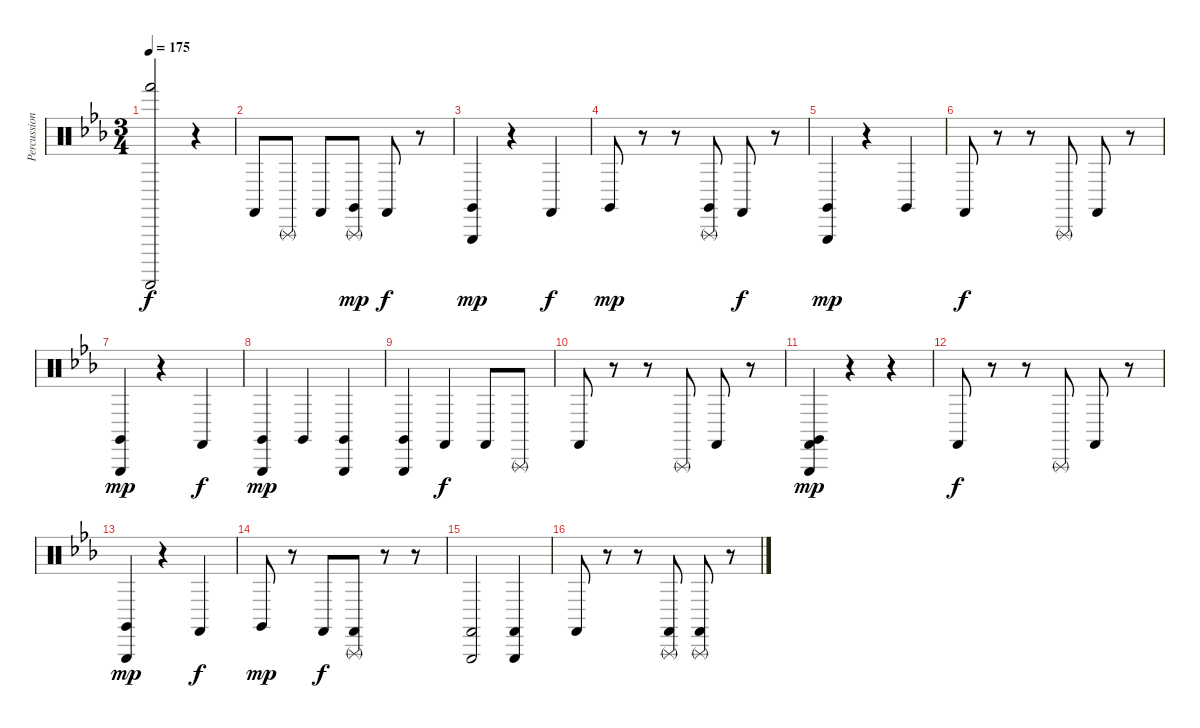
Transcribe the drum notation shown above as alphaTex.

\track ("Percussion" "Percussion") {instrument percussion}
\staff {score}
\articulation defaults
\ts (3 4)
\tempo 175
\clef neutral
\ks eb
("Guiro (scrap-return)" "Hand (hit)").2{dy f} r.4 |
"Castanets (hit)".8 "Triangle (rnute)".8 "Castanets (hit)".8 ("Triangle (rnute)" "Claves (hit)").8{dy mp} "Castanets (hit)".8{dy f} r.8 |
("Triangle (hit)" "Claves (hit)").4{dy mp} r.4 "Castanets (hit)".4{dy f} |
"Claves (hit)".8{dy mp} r.8 r.8 ("Triangle (rnute)" "Claves (hit)").8 "Castanets (hit)".8{dy f} r.8 |
("Triangle (hit)" "Claves (hit)").4{dy mp} r.4 "Claves (hit)".4 |
"Castanets (hit)".8{dy f} r.8 r.8 "Triangle (rnute)".8 "Castanets (hit)".8 r.8 |
("Triangle (hit)" "Claves (hit)").4{dy mp} r.4 "Castanets (hit)".4{dy f} |
("Triangle (hit)" "Claves (hit)").4{dy mp} "Claves (hit)".4 ("Triangle (hit)" "Claves (hit)").4 |
("Triangle (hit)" "Claves (hit)").4 "Castanets (hit)".4{dy f} "Castanets (hit)".8 "Triangle (rnute)".8 |
"Castanets (hit)".8 r.8 r.8 "Triangle (rnute)".8 "Castanets (hit)".8 r.8 |
("Triangle (hit)" "Castanets (hit)" "Claves (hit)").4{dy mp} r.4 r.4 |
"Castanets (hit)".8{dy f} r.8 r.8 "Triangle (rnute)".8 "Castanets (hit)".8 r.8 |
("Triangle (hit)" "Claves (hit)").4{dy mp} r.4 "Castanets (hit)".4{dy f} |
"Claves (hit)".8{dy mp} r.8 "Castanets (hit)".8{dy f} ("Triangle (rnute)" "Castanets (hit)").8 r.8 r.8 |
("Triangle (hit)" "Castanets (hit)").2 ("Triangle (hit)" "Castanets (hit)").4 |
"Castanets (hit)".8 r.8 r.8 ("Triangle (rnute)" "Castanets (hit)").8 ("Triangle (rnute)" "Castanets (hit)").8 r.8
